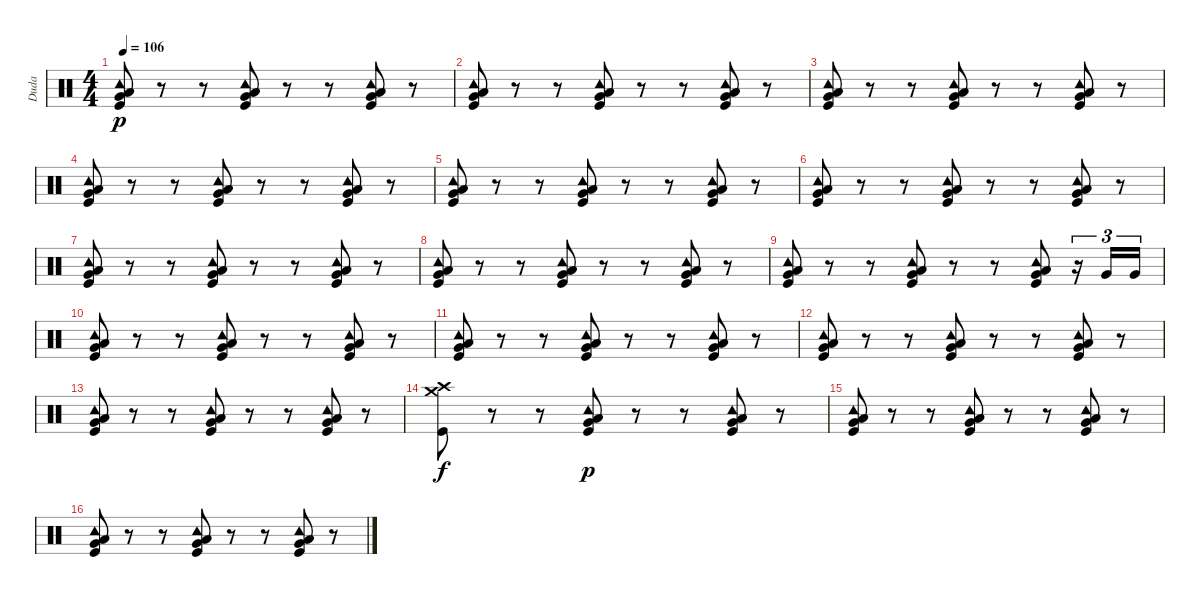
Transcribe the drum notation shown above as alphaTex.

\track ("Duda" "Duda") {instrument percussion}
\staff {score}
\articulation defaults
\ts (4 4)
\tempo 106
\clef neutral
\ks c
("Tambourine (hit)" "Low Floor Tom (hit)" "Very Low Tom (hit)" "Kick (hit)").8{dy p} r.8 r.8 ("Tambourine (hit)" "Low Floor Tom (hit)" "Very Low Tom (hit)" "Kick (hit)").8 r.8 r.8 ("Tambourine (hit)" "Low Floor Tom (hit)" "Very Low Tom (hit)" "Kick (hit)").8 r.8 |
("Tambourine (hit)" "Low Floor Tom (hit)" "Very Low Tom (hit)" "Kick (hit)").8 r.8 r.8 ("Tambourine (hit)" "Low Floor Tom (hit)" "Very Low Tom (hit)" "Kick (hit)").8 r.8 r.8 ("Tambourine (hit)" "Low Floor Tom (hit)" "Very Low Tom (hit)" "Kick (hit)").8 r.8 |
("Tambourine (hit)" "Low Floor Tom (hit)" "Very Low Tom (hit)" "Kick (hit)").8 r.8 r.8 ("Tambourine (hit)" "Low Floor Tom (hit)" "Very Low Tom (hit)" "Kick (hit)").8 r.8 r.8 ("Tambourine (hit)" "Low Floor Tom (hit)" "Very Low Tom (hit)" "Kick (hit)").8 r.8 |
("Tambourine (hit)" "Low Floor Tom (hit)" "Very Low Tom (hit)" "Kick (hit)").8 r.8 r.8 ("Tambourine (hit)" "Low Floor Tom (hit)" "Very Low Tom (hit)" "Kick (hit)").8 r.8 r.8 ("Tambourine (hit)" "Low Floor Tom (hit)" "Very Low Tom (hit)" "Kick (hit)").8 r.8 |
("Tambourine (hit)" "Low Floor Tom (hit)" "Very Low Tom (hit)" "Kick (hit)").8 r.8 r.8 ("Tambourine (hit)" "Low Floor Tom (hit)" "Very Low Tom (hit)" "Kick (hit)").8 r.8 r.8 ("Tambourine (hit)" "Low Floor Tom (hit)" "Very Low Tom (hit)" "Kick (hit)").8 r.8 |
("Tambourine (hit)" "Low Floor Tom (hit)" "Very Low Tom (hit)" "Kick (hit)").8 r.8 r.8 ("Tambourine (hit)" "Low Floor Tom (hit)" "Very Low Tom (hit)" "Kick (hit)").8 r.8 r.8 ("Tambourine (hit)" "Low Floor Tom (hit)" "Very Low Tom (hit)" "Kick (hit)").8 r.8 |
("Tambourine (hit)" "Low Floor Tom (hit)" "Very Low Tom (hit)" "Kick (hit)").8 r.8 r.8 ("Tambourine (hit)" "Low Floor Tom (hit)" "Very Low Tom (hit)" "Kick (hit)").8 r.8 r.8 ("Tambourine (hit)" "Low Floor Tom (hit)" "Very Low Tom (hit)" "Kick (hit)").8 r.8 |
("Tambourine (hit)" "Low Floor Tom (hit)" "Very Low Tom (hit)" "Kick (hit)").8 r.8 r.8 ("Tambourine (hit)" "Low Floor Tom (hit)" "Very Low Tom (hit)" "Kick (hit)").8 r.8 r.8 ("Tambourine (hit)" "Low Floor Tom (hit)" "Very Low Tom (hit)" "Kick (hit)").8 r.8 |
("Tambourine (hit)" "Low Floor Tom (hit)" "Very Low Tom (hit)" "Kick (hit)").8 r.8 r.8 ("Tambourine (hit)" "Low Floor Tom (hit)" "Very Low Tom (hit)" "Kick (hit)").8 r.8 r.8 ("Tambourine (hit)" "Low Floor Tom (hit)" "Very Low Tom (hit)" "Kick (hit)").8 r.16{tu (3 2)} "Very Low Tom (hit)".16{tu (3 2)} "Very Low Tom (hit)".16{tu (3 2)} |
("Tambourine (hit)" "Low Floor Tom (hit)" "Very Low Tom (hit)" "Kick (hit)").8 r.8 r.8 ("Tambourine (hit)" "Low Floor Tom (hit)" "Very Low Tom (hit)" "Kick (hit)").8 r.8 r.8 ("Tambourine (hit)" "Low Floor Tom (hit)" "Very Low Tom (hit)" "Kick (hit)").8 r.8 |
("Tambourine (hit)" "Low Floor Tom (hit)" "Very Low Tom (hit)" "Kick (hit)").8 r.8 r.8 ("Tambourine (hit)" "Low Floor Tom (hit)" "Very Low Tom (hit)" "Kick (hit)").8 r.8 r.8 ("Tambourine (hit)" "Low Floor Tom (hit)" "Very Low Tom (hit)" "Kick (hit)").8 r.8 |
("Tambourine (hit)" "Low Floor Tom (hit)" "Very Low Tom (hit)" "Kick (hit)").8 r.8 r.8 ("Tambourine (hit)" "Low Floor Tom (hit)" "Very Low Tom (hit)" "Kick (hit)").8 r.8 r.8 ("Tambourine (hit)" "Low Floor Tom (hit)" "Very Low Tom (hit)" "Kick (hit)").8 r.8 |
("Tambourine (hit)" "Low Floor Tom (hit)" "Very Low Tom (hit)" "Kick (hit)").8 r.8 r.8 ("Tambourine (hit)" "Low Floor Tom (hit)" "Very Low Tom (hit)" "Kick (hit)").8 r.8 r.8 ("Tambourine (hit)" "Low Floor Tom (hit)" "Very Low Tom (hit)" "Kick (hit)").8 r.8 |
("Crash medium (hit)" "Crash high (hit)" "Kick (hit)").8{dy f} r.8 r.8 ("Tambourine (hit)" "Low Floor Tom (hit)" "Very Low Tom (hit)" "Kick (hit)").8{dy p} r.8 r.8 ("Tambourine (hit)" "Low Floor Tom (hit)" "Very Low Tom (hit)" "Kick (hit)").8 r.8 |
("Tambourine (hit)" "Low Floor Tom (hit)" "Very Low Tom (hit)" "Kick (hit)").8 r.8 r.8 ("Tambourine (hit)" "Low Floor Tom (hit)" "Very Low Tom (hit)" "Kick (hit)").8 r.8 r.8 ("Tambourine (hit)" "Low Floor Tom (hit)" "Very Low Tom (hit)" "Kick (hit)").8 r.8 |
("Tambourine (hit)" "Low Floor Tom (hit)" "Very Low Tom (hit)" "Kick (hit)").8 r.8 r.8 ("Tambourine (hit)" "Low Floor Tom (hit)" "Very Low Tom (hit)" "Kick (hit)").8 r.8 r.8 ("Tambourine (hit)" "Low Floor Tom (hit)" "Very Low Tom (hit)" "Kick (hit)").8 r.8
